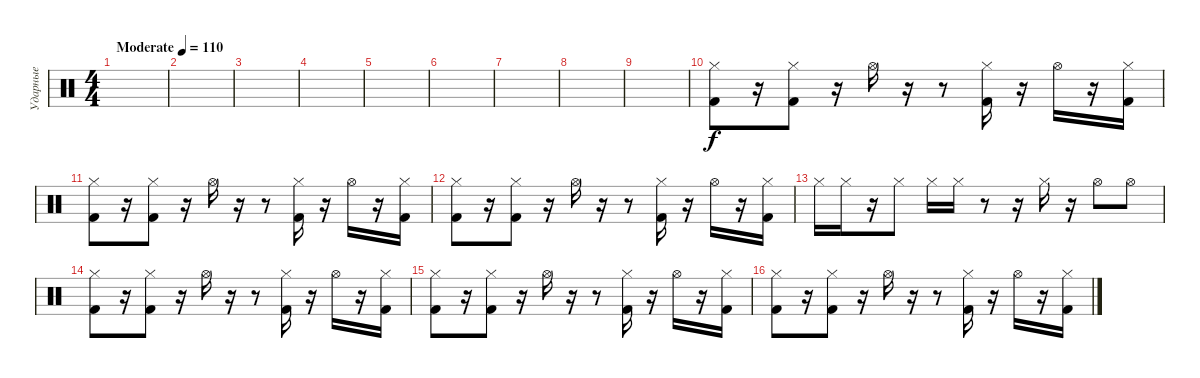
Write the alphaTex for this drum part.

\track ("Ударные" "Ударные") {instrument percussion}
\staff {score}
\articulation defaults
\ts (4 4)
\tempo (110 "Moderate")
\clef neutral
\ks c
|
|
|
|
|
|
|
|
|
("Hi-Hat (closed)" "Kick (hit) 2").8 r.16 ("Hi-Hat (closed)" "Kick (hit) 2").8 r.16 "Hi-Hat (open)".16 r.16 r.8 ("Hi-Hat (closed)" "Kick (hit) 2").16 r.16 "Hi-Hat (open)".16 r.16 ("Hi-Hat (closed)" "Kick (hit) 2").16 |
("Hi-Hat (closed)" "Kick (hit) 2").8 r.16 ("Hi-Hat (closed)" "Kick (hit) 2").8 r.16 "Hi-Hat (open)".16 r.16 r.8 ("Hi-Hat (closed)" "Kick (hit) 2").16 r.16 "Hi-Hat (open)".16 r.16 ("Hi-Hat (closed)" "Kick (hit) 2").16 |
("Hi-Hat (closed)" "Kick (hit) 2").8 r.16 ("Hi-Hat (closed)" "Kick (hit) 2").8 r.16 "Hi-Hat (open)".16 r.16 r.8 ("Hi-Hat (closed)" "Kick (hit) 2").16 r.16 "Hi-Hat (open)".16 r.16 ("Hi-Hat (closed)" "Kick (hit) 2").16 |
"Hi-Hat (closed)".16 "Hi-Hat (closed)".16 r.16 "Hi-Hat (closed)".8 "Hi-Hat (closed)".16 "Hi-Hat (closed)".16 r.8 r.16 "Hi-Hat (closed)".16 r.16 "Hi-Hat (open)".8 "Hi-Hat (open)".8 |
("Hi-Hat (closed)" "Kick (hit) 2").8 r.16 ("Hi-Hat (closed)" "Kick (hit) 2").8 r.16 "Hi-Hat (open)".16 r.16 r.8 ("Hi-Hat (closed)" "Kick (hit) 2").16 r.16 "Hi-Hat (open)".16 r.16 ("Hi-Hat (closed)" "Kick (hit) 2").16 |
("Hi-Hat (closed)" "Kick (hit) 2").8 r.16 ("Hi-Hat (closed)" "Kick (hit) 2").8 r.16 "Hi-Hat (open)".16 r.16 r.8 ("Hi-Hat (closed)" "Kick (hit) 2").16 r.16 "Hi-Hat (open)".16 r.16 ("Hi-Hat (closed)" "Kick (hit) 2").16 |
("Hi-Hat (closed)" "Kick (hit) 2").8 r.16 ("Hi-Hat (closed)" "Kick (hit) 2").8 r.16 "Hi-Hat (open)".16 r.16 r.8 ("Hi-Hat (closed)" "Kick (hit) 2").16 r.16 "Hi-Hat (open)".16 r.16 ("Hi-Hat (closed)" "Kick (hit) 2").16
